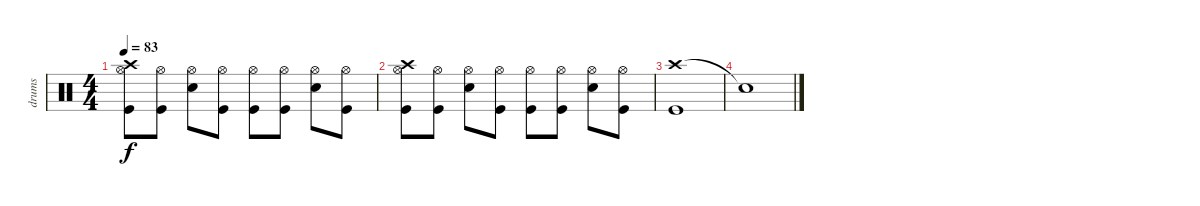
\track ("drums" "drums") {instrument percussion}
\staff {score}
\articulation defaults
\ts (4 4)
\tempo 83
\clef neutral
\ks c
("Hi-Hat (open)" "Crash high (hit)" "Kick (hit)").8{dy f} ("Hi-Hat (open)" "Kick (hit)").8 ("Hi-Hat (open)" "Snare (hit) 2").8 ("Hi-Hat (open)" "Kick (hit)").8 ("Hi-Hat (open)" "Kick (hit)").8 ("Hi-Hat (open)" "Kick (hit)").8 ("Hi-Hat (open)" "Snare (hit) 2").8 ("Hi-Hat (open)" "Kick (hit)").8 |
("Hi-Hat (open)" "Crash high (hit)" "Kick (hit)").8 ("Hi-Hat (open)" "Kick (hit)").8 ("Hi-Hat (open)" "Snare (hit) 2").8 ("Hi-Hat (open)" "Kick (hit)").8 ("Hi-Hat (open)" "Kick (hit)").8 ("Hi-Hat (open)" "Kick (hit)").8 ("Hi-Hat (open)" "Snare (hit) 2").8 ("Hi-Hat (open)" "Kick (hit)").8 |
("Crash high (hit)" "Kick (hit)").1 |
"Snare (hit)"{t}.1
